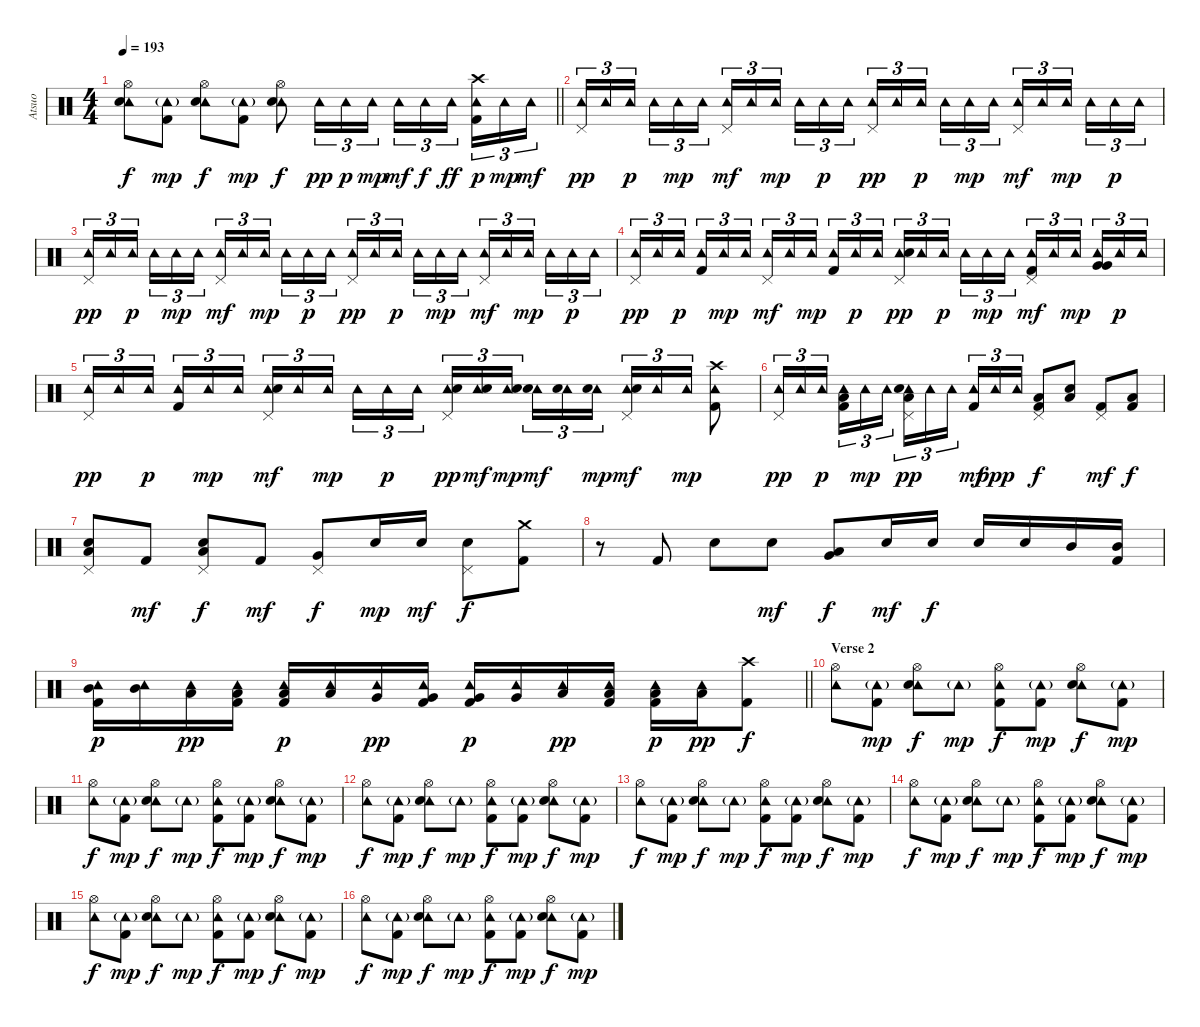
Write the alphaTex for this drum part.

\track ("Atsuo" "Atsuo") {instrument percussion}
\staff {score}
\articulation defaults
\ts (4 4)
\tempo 193
\clef neutral
\barLineRight lightlight
\ks c
("Hi-Hat (open)" "Tambourine (hit)" "Electric Snare (hit)").8{dy f} ("Tambourine (hit)"{g} "Kick (hit) 2").8{dy mp} ("Hi-Hat (open)" "Tambourine (hit)" "Electric Snare (hit)").8{dy f} ("Tambourine (hit)"{g} "Kick (hit) 2").8{dy mp} ("Hi-Hat (open)" "Tambourine (hit)" "Electric Snare (hit)").8{dy f} "Tambourine (hit)".16{tu (3 2) dy pp} "Tambourine (hit)".16{tu (3 2) dy p} "Tambourine (hit)".16{tu (3 2) dy mp} "Tambourine (hit)".16{tu (3 2) dy mf} "Tambourine (hit)".16{tu (3 2) dy f} "Tambourine (hit)".16{tu (3 2) dy ff beam splitsecondary} ("Crash high (hit)" "Tambourine (hit)" "Kick (hit) 2").16{tu (3 2) dy p} "Tambourine (hit)".16{tu (3 2) dy mp} "Tambourine (hit)".16{tu (3 2) dy mf} |
\section ("" "")
("Pedal Hi-Hat (hit)" "Tambourine (hit)").16{tu (3 2) dy pp} "Tambourine (hit)".16{tu (3 2)} "Tambourine (hit)".16{tu (3 2) dy p beam splitsecondary} "Tambourine (hit)".16{tu (3 2)} "Tambourine (hit)".16{tu (3 2) dy mp} "Tambourine (hit)".16{tu (3 2)} ("Pedal Hi-Hat (hit)" "Tambourine (hit)").16{tu (3 2) dy mf} "Tambourine (hit)".16{tu (3 2)} "Tambourine (hit)".16{tu (3 2) dy mp beam splitsecondary} "Tambourine (hit)".16{tu (3 2)} "Tambourine (hit)".16{tu (3 2) dy p} "Tambourine (hit)".16{tu (3 2)} ("Pedal Hi-Hat (hit)" "Tambourine (hit)").16{tu (3 2) dy pp} "Tambourine (hit)".16{tu (3 2)} "Tambourine (hit)".16{tu (3 2) dy p beam splitsecondary} "Tambourine (hit)".16{tu (3 2)} "Tambourine (hit)".16{tu (3 2) dy mp} "Tambourine (hit)".16{tu (3 2)} ("Pedal Hi-Hat (hit)" "Tambourine (hit)").16{tu (3 2) dy mf} "Tambourine (hit)".16{tu (3 2)} "Tambourine (hit)".16{tu (3 2) dy mp beam splitsecondary} "Tambourine (hit)".16{tu (3 2)} "Tambourine (hit)".16{tu (3 2) dy p} "Tambourine (hit)".16{tu (3 2)} |
("Pedal Hi-Hat (hit)" "Tambourine (hit)").16{tu (3 2) dy pp} "Tambourine (hit)".16{tu (3 2)} "Tambourine (hit)".16{tu (3 2) dy p beam splitsecondary} "Tambourine (hit)".16{tu (3 2)} "Tambourine (hit)".16{tu (3 2) dy mp} "Tambourine (hit)".16{tu (3 2)} ("Pedal Hi-Hat (hit)" "Tambourine (hit)").16{tu (3 2) dy mf} "Tambourine (hit)".16{tu (3 2)} "Tambourine (hit)".16{tu (3 2) dy mp beam splitsecondary} "Tambourine (hit)".16{tu (3 2)} "Tambourine (hit)".16{tu (3 2) dy p} "Tambourine (hit)".16{tu (3 2)} ("Pedal Hi-Hat (hit)" "Tambourine (hit)").16{tu (3 2) dy pp} "Tambourine (hit)".16{tu (3 2)} "Tambourine (hit)".16{tu (3 2) dy p beam splitsecondary} "Tambourine (hit)".16{tu (3 2)} "Tambourine (hit)".16{tu (3 2) dy mp} "Tambourine (hit)".16{tu (3 2)} ("Pedal Hi-Hat (hit)" "Tambourine (hit)").16{tu (3 2) dy mf} "Tambourine (hit)".16{tu (3 2)} "Tambourine (hit)".16{tu (3 2) dy mp beam splitsecondary} "Tambourine (hit)".16{tu (3 2)} "Tambourine (hit)".16{tu (3 2) dy p} "Tambourine (hit)".16{tu (3 2)} |
("Pedal Hi-Hat (hit)" "Tambourine (hit)").16{tu (3 2) dy pp} "Tambourine (hit)".16{tu (3 2)} "Tambourine (hit)".16{tu (3 2) dy p beam splitsecondary} ("Tambourine (hit)" "Kick (hit) 2").16{tu (3 2)} "Tambourine (hit)".16{tu (3 2) dy mp} "Tambourine (hit)".16{tu (3 2)} ("Pedal Hi-Hat (hit)" "Tambourine (hit)").16{tu (3 2) dy mf} "Tambourine (hit)".16{tu (3 2)} "Tambourine (hit)".16{tu (3 2) dy mp beam splitsecondary} ("Tambourine (hit)" "Kick (hit) 2").16{tu (3 2)} "Tambourine (hit)".16{tu (3 2) dy p} "Tambourine (hit)".16{tu (3 2)} ("Pedal Hi-Hat (hit)" "Tambourine (hit)" "Electric Snare (hit)").16{tu (3 2) dy pp} "Tambourine (hit)".16{tu (3 2)} "Tambourine (hit)".16{tu (3 2) dy p beam splitsecondary} "Tambourine (hit)".16{tu (3 2)} "Tambourine (hit)".16{tu (3 2) dy mp} "Tambourine (hit)".16{tu (3 2)} ("Pedal Hi-Hat (hit)" "Tambourine (hit)" "Kick (hit) 2").16{tu (3 2) dy mf} "Tambourine (hit)".16{tu (3 2)} "Tambourine (hit)".16{tu (3 2) dy mp beam splitsecondary} ("Tambourine (hit)" "Very Low Tom (hit)" "Very Low Tom (hit)").16{tu (3 2)} "Tambourine (hit)".16{tu (3 2) dy p} "Tambourine (hit)".16{tu (3 2)} |
("Pedal Hi-Hat (hit)" "Tambourine (hit)").16{tu (3 2) dy pp} "Tambourine (hit)".16{tu (3 2)} "Tambourine (hit)".16{tu (3 2) dy p beam splitsecondary} ("Tambourine (hit)" "Kick (hit) 2").16{tu (3 2)} "Tambourine (hit)".16{tu (3 2) dy mp} "Tambourine (hit)".16{tu (3 2)} ("Pedal Hi-Hat (hit)" "Tambourine (hit)" "Electric Snare (hit)").16{tu (3 2) dy mf} "Tambourine (hit)".16{tu (3 2)} "Tambourine (hit)".16{tu (3 2) dy mp beam splitsecondary} "Tambourine (hit)".16{tu (3 2)} "Tambourine (hit)".16{tu (3 2) dy p} "Tambourine (hit)".16{tu (3 2)} ("Pedal Hi-Hat (hit)" "Tambourine (hit)" "Electric Snare (hit)").16{tu (3 2) dy pp} ("Tambourine (hit)" "Electric Snare (hit)").16{tu (3 2) dy mf} ("Tambourine (hit)" "Electric Snare (hit)").16{tu (3 2) dy mp beam splitsecondary} ("Tambourine (hit)" "Electric Snare (hit)").16{tu (3 2) dy mf} ("Tambourine (hit)" "Electric Snare (hit)").16{tu (3 2)} ("Tambourine (hit)" "Electric Snare (hit)").16{tu (3 2) dy mp} ("Pedal Hi-Hat (hit)" "Tambourine (hit)" "Electric Snare (hit)").16{tu (3 2) dy mf} "Tambourine (hit)".16{tu (3 2)} "Tambourine (hit)".16{tu (3 2) dy mp} ("Tambourine (hit)" "Crash high (hit)" "Kick (hit) 2").8 |
("Pedal Hi-Hat (hit)" "Tambourine (hit)").16{tu (3 2) dy pp} "Tambourine (hit)".16{tu (3 2)} "Tambourine (hit)".16{tu (3 2) dy p beam splitsecondary} ("Tambourine (hit)" "Low Floor Tom (hit)" "Kick (hit) 2").16{tu (3 2)} "Tambourine (hit)".16{tu (3 2) dy mp} "Tambourine (hit)".16{tu (3 2)} ("Pedal Hi-Hat (hit)" "Tambourine (hit)" "Electric Snare (hit)" "Low Floor Tom (hit)").16{tu (3 2) dy pp} "Tambourine (hit)".16{tu (3 2)} "Tambourine (hit)".16{tu (3 2) beam splitsecondary} ("Tambourine (hit)" "Kick (hit) 2").16{tu (3 2) dy mf} "Tambourine (hit)".16{tu (3 2) dy ppp} "Tambourine (hit)".16{tu (3 2)} ("Pedal Hi-Hat (hit)" "Low Floor Tom (hit)" "Kick (hit) 2").8{dy f} ("Electric Snare (hit)" "Low Floor Tom (hit)").8 ("Pedal Hi-Hat (hit)" "Kick (hit) 2").8{dy mf} ("Low Floor Tom (hit)" "Kick (hit) 2").8{dy f} |
("Pedal Hi-Hat (hit)" "Electric Snare (hit)" "Low Floor Tom (hit)").8 "Kick (hit) 2".8{dy mf} ("Pedal Hi-Hat (hit)" "Electric Snare (hit)" "Low Floor Tom (hit)").8{dy f} "Kick (hit) 2".8{dy mf} ("Pedal Hi-Hat (hit)" "Very Low Tom (hit)").8{dy f} "Electric Snare (hit)".16{dy mp} "Electric Snare (hit)".16{dy mf} ("Pedal Hi-Hat (hit)" "Electric Snare (hit)").8{dy f} ("Crash medium (hit)" "Kick (hit) 2").8 |
r.8 "Kick (hit) 2".8 "Electric Snare (hit)".8 "Electric Snare (hit)".8{dy mf} ("Very Low Tom (hit)" "Low Floor Tom (hit)").8{dy f} "Electric Snare (hit)".16{dy mf} "Electric Snare (hit)".16{dy f} "Electric Snare (hit)".16 "Electric Snare (hit)".16 "Mid Tom (hit)".16 ("Mid Tom (hit)" "Kick (hit) 2").16 |
\barLineRight lightlight
("Tambourine (hit)" "Mid Tom (hit)" "Kick (hit) 2").16{dy p} ("Tambourine (hit)" "Mid Tom (hit)").16 ("Tambourine (hit)" "Low Tom (hit)").16{dy pp} ("Tambourine (hit)" "Low Tom (hit)" "Kick (hit) 2").16 ("Tambourine (hit)" "Low Tom (hit)" "Kick (hit) 2").16{dy p} ("Tambourine (hit)" "Low Tom (hit)").16 ("Tambourine (hit)" "Very Low Tom (hit)").16{dy pp} ("Tambourine (hit)" "Very Low Tom (hit)" "Kick (hit) 2").16 ("Tambourine (hit)" "Very Low Tom (hit)" "Kick (hit) 2").16{dy p} ("Tambourine (hit)" "Very Low Tom (hit)").16 ("Tambourine (hit)" "Low Floor Tom (hit)").16{dy pp} ("Tambourine (hit)" "Low Floor Tom (hit)" "Kick (hit) 2").16 ("Tambourine (hit)" "Low Floor Tom (hit)" "Kick (hit) 2").16{dy p} ("Tambourine (hit)" "Low Floor Tom (hit)").16{dy pp} ("Crash high (hit)" "Kick (hit) 2").8{dy f} |
\section ("" "Verse 2")
("Hi-Hat (open)" "Tambourine (hit)").8 ("Tambourine (hit)"{g} "Kick (hit) 2").8{dy mp} ("Hi-Hat (open)" "Tambourine (hit)" "Electric Snare (hit)").8{dy f} "Tambourine (hit)"{g}.8{dy mp} ("Hi-Hat (open)" "Tambourine (hit)" "Kick (hit) 2").8{dy f} ("Tambourine (hit)"{g} "Kick (hit) 2").8{dy mp} ("Hi-Hat (open)" "Tambourine (hit)" "Electric Snare (hit)").8{dy f} ("Tambourine (hit)"{g} "Kick (hit) 2").8{dy mp} |
("Hi-Hat (open)" "Tambourine (hit)").8{dy f} ("Tambourine (hit)"{g} "Kick (hit) 2").8{dy mp} ("Hi-Hat (open)" "Tambourine (hit)" "Electric Snare (hit)").8{dy f} "Tambourine (hit)"{g}.8{dy mp} ("Hi-Hat (open)" "Tambourine (hit)" "Kick (hit) 2").8{dy f} ("Tambourine (hit)"{g} "Kick (hit) 2").8{dy mp} ("Hi-Hat (open)" "Tambourine (hit)" "Electric Snare (hit)").8{dy f} ("Tambourine (hit)"{g} "Kick (hit) 2").8{dy mp} |
("Hi-Hat (open)" "Tambourine (hit)").8{dy f} ("Tambourine (hit)"{g} "Kick (hit) 2").8{dy mp} ("Hi-Hat (open)" "Tambourine (hit)" "Electric Snare (hit)").8{dy f} "Tambourine (hit)"{g}.8{dy mp} ("Hi-Hat (open)" "Tambourine (hit)" "Kick (hit) 2").8{dy f} ("Tambourine (hit)"{g} "Kick (hit) 2").8{dy mp} ("Hi-Hat (open)" "Tambourine (hit)" "Electric Snare (hit)").8{dy f} ("Tambourine (hit)"{g} "Kick (hit) 2").8{dy mp} |
("Hi-Hat (open)" "Tambourine (hit)").8{dy f} ("Tambourine (hit)"{g} "Kick (hit) 2").8{dy mp} ("Hi-Hat (open)" "Tambourine (hit)" "Electric Snare (hit)").8{dy f} "Tambourine (hit)"{g}.8{dy mp} ("Hi-Hat (open)" "Tambourine (hit)" "Kick (hit) 2").8{dy f} ("Tambourine (hit)"{g} "Kick (hit) 2").8{dy mp} ("Hi-Hat (open)" "Tambourine (hit)" "Electric Snare (hit)").8{dy f} ("Tambourine (hit)"{g} "Kick (hit) 2").8{dy mp} |
("Hi-Hat (open)" "Tambourine (hit)").8{dy f} ("Tambourine (hit)"{g} "Kick (hit) 2").8{dy mp} ("Hi-Hat (open)" "Tambourine (hit)" "Electric Snare (hit)").8{dy f} "Tambourine (hit)"{g}.8{dy mp} ("Hi-Hat (open)" "Tambourine (hit)" "Kick (hit) 2").8{dy f} ("Tambourine (hit)"{g} "Kick (hit) 2").8{dy mp} ("Hi-Hat (open)" "Tambourine (hit)" "Electric Snare (hit)").8{dy f} ("Tambourine (hit)"{g} "Kick (hit) 2").8{dy mp} |
("Hi-Hat (open)" "Tambourine (hit)").8{dy f} ("Tambourine (hit)"{g} "Kick (hit) 2").8{dy mp} ("Hi-Hat (open)" "Tambourine (hit)" "Electric Snare (hit)").8{dy f} "Tambourine (hit)"{g}.8{dy mp} ("Hi-Hat (open)" "Tambourine (hit)" "Kick (hit) 2").8{dy f} ("Tambourine (hit)"{g} "Kick (hit) 2").8{dy mp} ("Hi-Hat (open)" "Tambourine (hit)" "Electric Snare (hit)").8{dy f} ("Tambourine (hit)"{g} "Kick (hit) 2").8{dy mp} |
("Hi-Hat (open)" "Tambourine (hit)").8{dy f} ("Tambourine (hit)"{g} "Kick (hit) 2").8{dy mp} ("Hi-Hat (open)" "Tambourine (hit)" "Electric Snare (hit)").8{dy f} "Tambourine (hit)"{g}.8{dy mp} ("Hi-Hat (open)" "Tambourine (hit)" "Kick (hit) 2").8{dy f} ("Tambourine (hit)"{g} "Kick (hit) 2").8{dy mp} ("Hi-Hat (open)" "Tambourine (hit)" "Electric Snare (hit)").8{dy f} ("Tambourine (hit)"{g} "Kick (hit) 2").8{dy mp}
